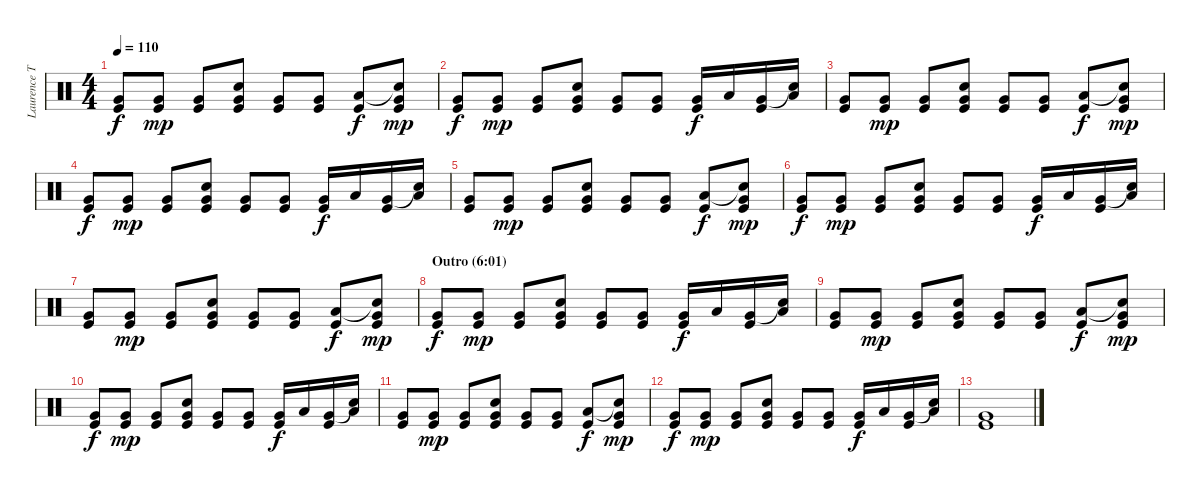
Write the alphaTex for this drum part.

\track ("Laurence Tolhurst (drums)" "Laurence T") {instrument percussion}
\staff {score}
\articulation defaults
\ts (4 4)
\tempo 110
\clef neutral
\ks c
("Very Low Tom (hit)" "Kick (hit)").8{dy f} ("Very Low Tom (hit)" "Kick (hit)").8{dy mp} ("Very Low Tom (hit)" "Kick (hit)").8 ("Snare (hit) 2" "Very Low Tom (hit)" "Kick (hit)").8 ("Very Low Tom (hit)" "Kick (hit)").8 ("Very Low Tom (hit)" "Kick (hit)").8 ("Low Tom (hit)" "Kick (hit)").8{dy f} ("Snare (hit)"{t} "Very Low Tom (hit)" "Kick (hit)").8{dy mp} |
("Very Low Tom (hit)" "Kick (hit)").8{dy f} ("Very Low Tom (hit)" "Kick (hit)").8{dy mp} ("Very Low Tom (hit)" "Kick (hit)").8 ("Snare (hit) 2" "Very Low Tom (hit)" "Kick (hit)").8 ("Very Low Tom (hit)" "Kick (hit)").8 ("Very Low Tom (hit)" "Kick (hit)").8 ("Very Low Tom (hit)" "Kick (hit)").16{dy f} "Low Tom (hit)".16 ("Very Low Tom (hit)" "Kick (hit)").16 ("Snare (hit)"{t} "Low Tom (hit)").16 |
("Very Low Tom (hit)" "Kick (hit)").8 ("Very Low Tom (hit)" "Kick (hit)").8{dy mp} ("Very Low Tom (hit)" "Kick (hit)").8 ("Snare (hit) 2" "Very Low Tom (hit)" "Kick (hit)").8 ("Very Low Tom (hit)" "Kick (hit)").8 ("Very Low Tom (hit)" "Kick (hit)").8 ("Low Tom (hit)" "Kick (hit)").8{dy f} ("Snare (hit)"{t} "Very Low Tom (hit)" "Kick (hit)").8{dy mp} |
("Very Low Tom (hit)" "Kick (hit)").8{dy f} ("Very Low Tom (hit)" "Kick (hit)").8{dy mp} ("Very Low Tom (hit)" "Kick (hit)").8 ("Snare (hit) 2" "Very Low Tom (hit)" "Kick (hit)").8 ("Very Low Tom (hit)" "Kick (hit)").8 ("Very Low Tom (hit)" "Kick (hit)").8 ("Very Low Tom (hit)" "Kick (hit)").16{dy f} "Low Tom (hit)".16 ("Very Low Tom (hit)" "Kick (hit)").16 ("Snare (hit)"{t} "Low Tom (hit)").16 |
("Very Low Tom (hit)" "Kick (hit)").8 ("Very Low Tom (hit)" "Kick (hit)").8{dy mp} ("Very Low Tom (hit)" "Kick (hit)").8 ("Snare (hit) 2" "Very Low Tom (hit)" "Kick (hit)").8 ("Very Low Tom (hit)" "Kick (hit)").8 ("Very Low Tom (hit)" "Kick (hit)").8 ("Low Tom (hit)" "Kick (hit)").8{dy f} ("Snare (hit)"{t} "Very Low Tom (hit)" "Kick (hit)").8{dy mp} |
("Very Low Tom (hit)" "Kick (hit)").8{dy f} ("Very Low Tom (hit)" "Kick (hit)").8{dy mp} ("Very Low Tom (hit)" "Kick (hit)").8 ("Snare (hit) 2" "Very Low Tom (hit)" "Kick (hit)").8 ("Very Low Tom (hit)" "Kick (hit)").8 ("Very Low Tom (hit)" "Kick (hit)").8 ("Very Low Tom (hit)" "Kick (hit)").16{dy f} "Low Tom (hit)".16 ("Very Low Tom (hit)" "Kick (hit)").16 ("Snare (hit)"{t} "Low Tom (hit)").16 |
("Very Low Tom (hit)" "Kick (hit)").8 ("Very Low Tom (hit)" "Kick (hit)").8{dy mp} ("Very Low Tom (hit)" "Kick (hit)").8 ("Snare (hit) 2" "Very Low Tom (hit)" "Kick (hit)").8 ("Very Low Tom (hit)" "Kick (hit)").8 ("Very Low Tom (hit)" "Kick (hit)").8 ("Low Tom (hit)" "Kick (hit)").8{dy f} ("Snare (hit)"{t} "Very Low Tom (hit)" "Kick (hit)").8{dy mp} |
\section ("" "Outro (6:01)")
("Very Low Tom (hit)" "Kick (hit)").8{dy f} ("Very Low Tom (hit)" "Kick (hit)").8{dy mp} ("Very Low Tom (hit)" "Kick (hit)").8 ("Snare (hit) 2" "Very Low Tom (hit)" "Kick (hit)").8 ("Very Low Tom (hit)" "Kick (hit)").8 ("Very Low Tom (hit)" "Kick (hit)").8 ("Very Low Tom (hit)" "Kick (hit)").16{dy f} "Low Tom (hit)".16 ("Very Low Tom (hit)" "Kick (hit)").16 ("Snare (hit)"{t} "Low Tom (hit)").16 |
("Very Low Tom (hit)" "Kick (hit)").8 ("Very Low Tom (hit)" "Kick (hit)").8{dy mp} ("Very Low Tom (hit)" "Kick (hit)").8 ("Snare (hit) 2" "Very Low Tom (hit)" "Kick (hit)").8 ("Very Low Tom (hit)" "Kick (hit)").8 ("Very Low Tom (hit)" "Kick (hit)").8 ("Low Tom (hit)" "Kick (hit)").8{dy f} ("Snare (hit)"{t} "Very Low Tom (hit)" "Kick (hit)").8{dy mp} |
("Very Low Tom (hit)" "Kick (hit)").8{dy f} ("Very Low Tom (hit)" "Kick (hit)").8{dy mp} ("Very Low Tom (hit)" "Kick (hit)").8 ("Snare (hit) 2" "Very Low Tom (hit)" "Kick (hit)").8 ("Very Low Tom (hit)" "Kick (hit)").8 ("Very Low Tom (hit)" "Kick (hit)").8 ("Very Low Tom (hit)" "Kick (hit)").16{dy f} "Low Tom (hit)".16 ("Very Low Tom (hit)" "Kick (hit)").16 ("Snare (hit)"{t} "Low Tom (hit)").16 |
("Very Low Tom (hit)" "Kick (hit)").8 ("Very Low Tom (hit)" "Kick (hit)").8{dy mp} ("Very Low Tom (hit)" "Kick (hit)").8 ("Snare (hit) 2" "Very Low Tom (hit)" "Kick (hit)").8 ("Very Low Tom (hit)" "Kick (hit)").8 ("Very Low Tom (hit)" "Kick (hit)").8 ("Low Tom (hit)" "Kick (hit)").8{dy f} ("Snare (hit)"{t} "Very Low Tom (hit)" "Kick (hit)").8{dy mp} |
("Very Low Tom (hit)" "Kick (hit)").8{dy f} ("Very Low Tom (hit)" "Kick (hit)").8{dy mp} ("Very Low Tom (hit)" "Kick (hit)").8 ("Snare (hit) 2" "Very Low Tom (hit)" "Kick (hit)").8 ("Very Low Tom (hit)" "Kick (hit)").8 ("Very Low Tom (hit)" "Kick (hit)").8 ("Very Low Tom (hit)" "Kick (hit)").16{dy f} "Low Tom (hit)".16 ("Very Low Tom (hit)" "Kick (hit)").16 ("Snare (hit)"{t} "Low Tom (hit)").16 |
("Very Low Tom (hit)" "Kick (hit)").1
